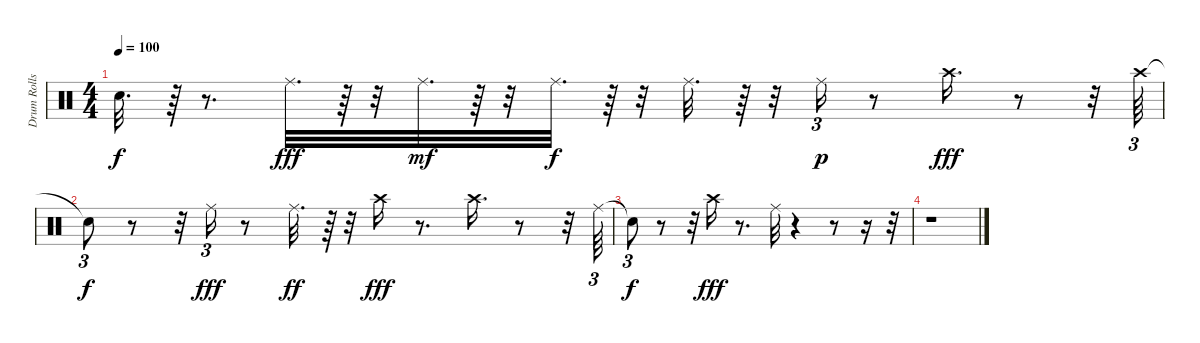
\track ("Drum Rolls" "Drum Rolls") {instrument percussion}
\staff {score}
\articulation defaults
\ts (4 4)
\tempo 100
\clef neutral
\ks c "Snare (hit)"{t}.32{d dy f}
r.64 r.8{d} "Ride (middle)".32{d dy fff volume 3} r.64 r.32 "Ride (middle)".32{d dy mf volume 2} r.64 r.32 "Ride (middle)".32{d dy f} r.64 r.32 "Ride (middle)".32{d volume 2} r.64 r.32 "Ride (middle)".16{tu (3 2) dy p} r.8 "Crash high (hit)".16{d dy fff volume 2} r.8 r.32 "Crash high (hit)".64{tu (3 2) volume 1} |
"Snare (hit)"{t}.8{tu (3 2) dy f} r.8 r.32 "Ride (middle)".16{tu (3 2) dy fff volume 1} r.8 "Ride (middle)".32{d dy ff volume 0} r.64 r.32 "Crash high (hit)".16{dy fff volume 0} r.8{d} "Crash high (hit)".16{d volume 0} r.8 r.32 "Ride (middle)".64{tu (3 2)} |
"Snare (hit)"{t}.8{tu (3 2) dy f} r.8 r.32 "Crash high (hit)".16{dy fff} r.8{d} "Ride (middle)".32 r.4 r.8 r.16 r.32 |
r.1
